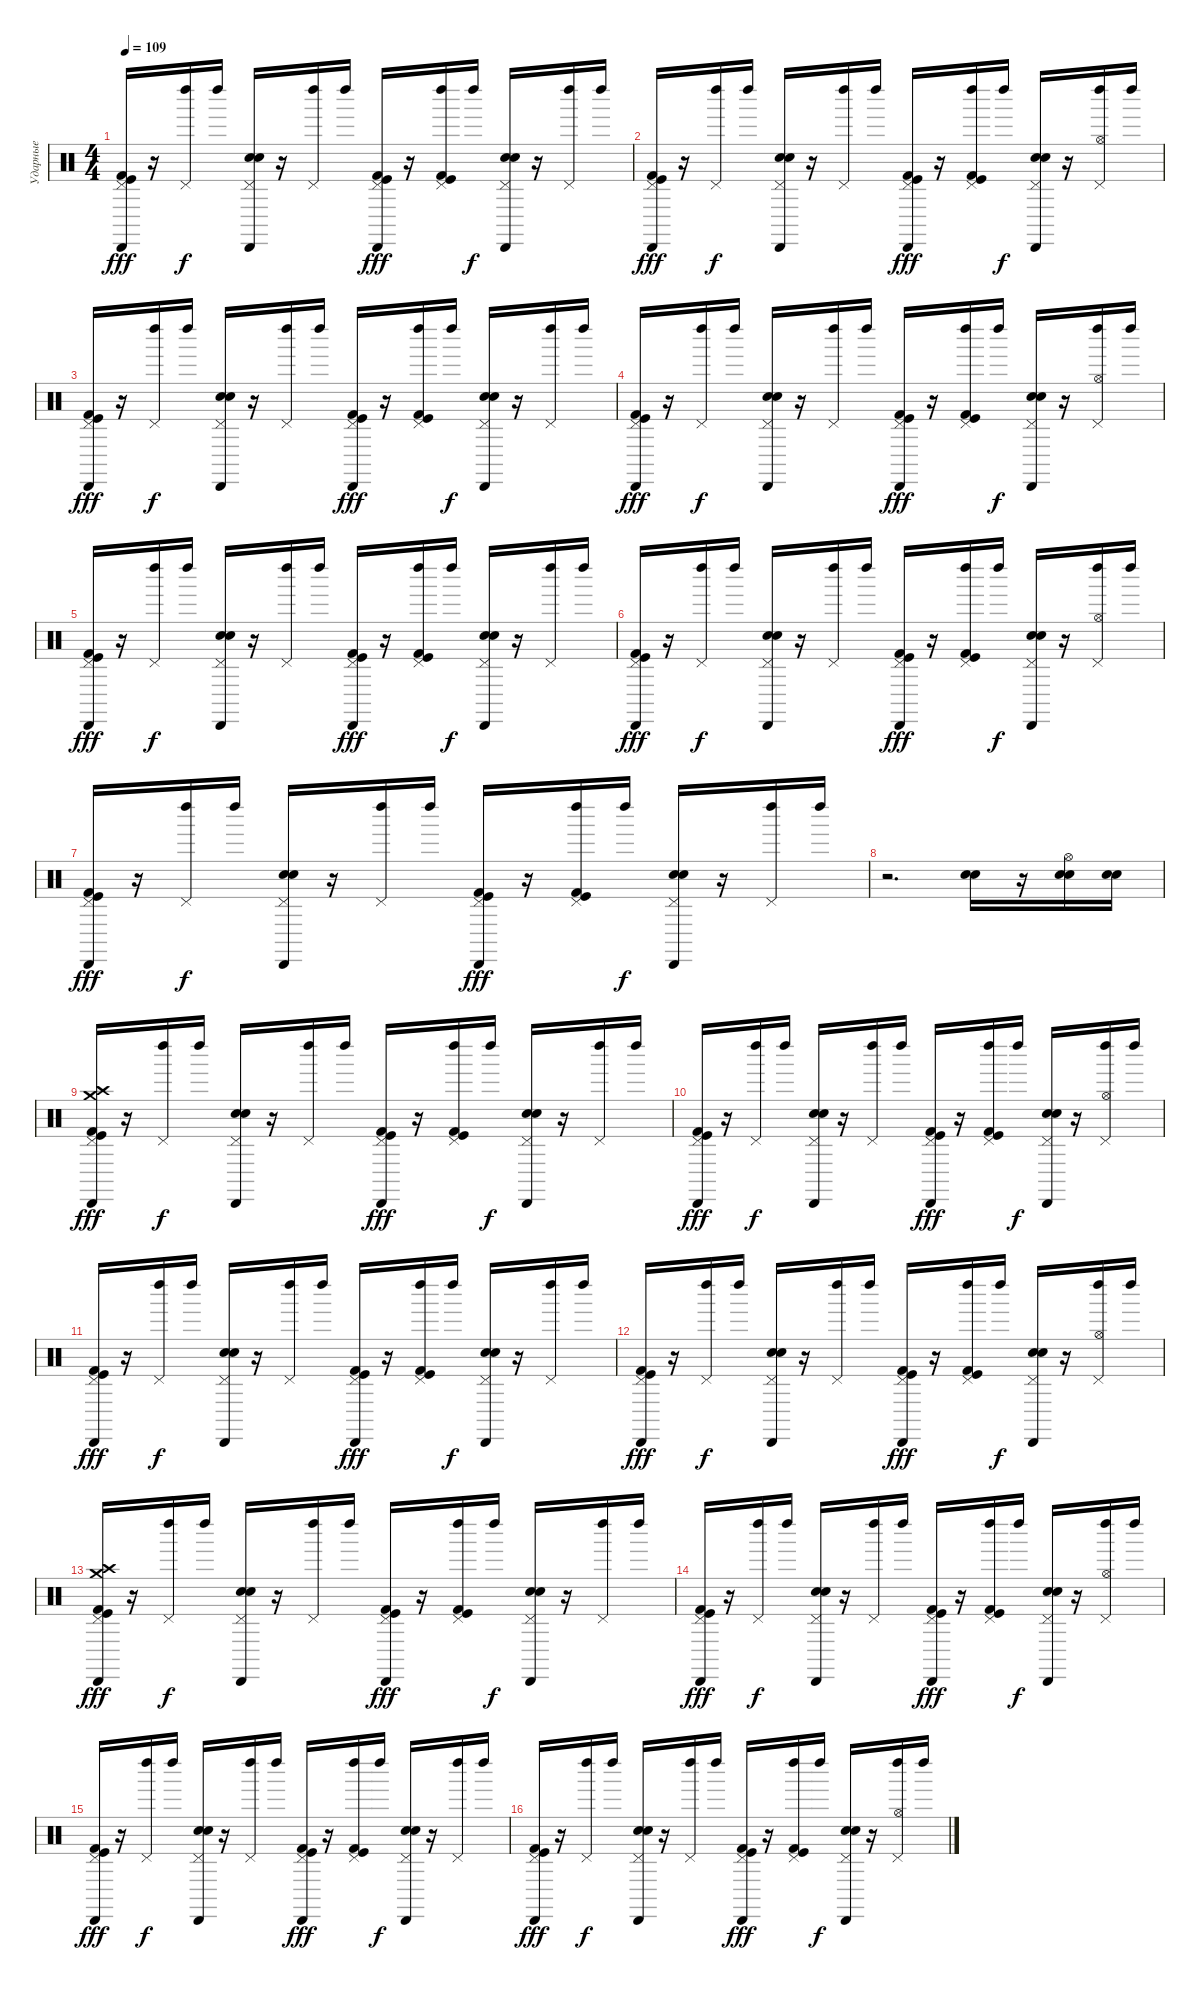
\track ("Ударные" "Ударные") {instrument percussion}
\staff {score}
\articulation defaults
\ts (4 4)
\tempo 109
\clef neutral
\ks c
("Cabasa (hit)" "Kick (hit)" "Kick (hit) 2" "Pedal Hi-Hat (hit)").16{dy fff} r.16 ("Left Maraca (hit)" "Pedal Hi-Hat (hit)").16{dy f} "Left Maraca (hit)".16 ("Cabasa (hit)" "Snare (hit) 2" "Electric Snare (hit)" "Pedal Hi-Hat (hit)").16 r.16 ("Left Maraca (hit)" "Pedal Hi-Hat (hit)").16 "Left Maraca (hit)".16 ("Cabasa (hit)" "Kick (hit)" "Kick (hit) 2" "Pedal Hi-Hat (hit)").16{dy fff} r.16 ("Left Maraca (hit)" "Kick (hit) 2" "Kick (hit)" "Pedal Hi-Hat (hit)").16 "Left Maraca (hit)".16{dy f} ("Cabasa (hit)" "Snare (hit) 2" "Electric Snare (hit)" "Pedal Hi-Hat (hit)").16 r.16 ("Left Maraca (hit)" "Pedal Hi-Hat (hit)").16 "Left Maraca (hit)".16 |
("Cabasa (hit)" "Kick (hit) 2" "Kick (hit)" "Pedal Hi-Hat (hit)").16{dy fff} r.16 ("Left Maraca (hit)" "Pedal Hi-Hat (hit)").16{dy f} "Left Maraca (hit)".16 ("Cabasa (hit)" "Electric Snare (hit)" "Snare (hit) 2" "Pedal Hi-Hat (hit)").16 r.16 ("Left Maraca (hit)" "Pedal Hi-Hat (hit)").16 "Left Maraca (hit)".16 ("Cabasa (hit)" "Kick (hit)" "Kick (hit) 2" "Pedal Hi-Hat (hit)").16{dy fff} r.16 ("Left Maraca (hit)" "Kick (hit) 2" "Kick (hit)" "Pedal Hi-Hat (hit)").16 "Left Maraca (hit)".16{dy f} ("Cabasa (hit)" "Snare (hit) 2" "Electric Snare (hit)" "Pedal Hi-Hat (hit)").16 r.16 ("Left Maraca (hit)" "Pedal Hi-Hat (hit)" "Hi-Hat (open)").16 "Left Maraca (hit)".16 |
("Cabasa (hit)" "Kick (hit)" "Kick (hit) 2" "Pedal Hi-Hat (hit)").16{dy fff} r.16 ("Left Maraca (hit)" "Pedal Hi-Hat (hit)").16{dy f} "Left Maraca (hit)".16 ("Cabasa (hit)" "Snare (hit) 2" "Electric Snare (hit)" "Pedal Hi-Hat (hit)").16 r.16 ("Left Maraca (hit)" "Pedal Hi-Hat (hit)").16 "Left Maraca (hit)".16 ("Cabasa (hit)" "Kick (hit)" "Kick (hit) 2" "Pedal Hi-Hat (hit)").16{dy fff} r.16 ("Left Maraca (hit)" "Kick (hit) 2" "Kick (hit)" "Pedal Hi-Hat (hit)").16 "Left Maraca (hit)".16{dy f} ("Cabasa (hit)" "Electric Snare (hit)" "Snare (hit) 2" "Pedal Hi-Hat (hit)").16 r.16 ("Left Maraca (hit)" "Pedal Hi-Hat (hit)").16 "Left Maraca (hit)".16 |
("Cabasa (hit)" "Kick (hit) 2" "Kick (hit)" "Pedal Hi-Hat (hit)").16{dy fff} r.16 ("Left Maraca (hit)" "Pedal Hi-Hat (hit)").16{dy f} "Left Maraca (hit)".16 ("Cabasa (hit)" "Snare (hit) 2" "Electric Snare (hit)" "Pedal Hi-Hat (hit)").16 r.16 ("Left Maraca (hit)" "Pedal Hi-Hat (hit)").16 "Left Maraca (hit)".16 ("Cabasa (hit)" "Kick (hit)" "Kick (hit) 2" "Pedal Hi-Hat (hit)").16{dy fff} r.16 ("Left Maraca (hit)" "Kick (hit) 2" "Kick (hit)" "Pedal Hi-Hat (hit)").16 "Left Maraca (hit)".16{dy f} ("Cabasa (hit)" "Snare (hit) 2" "Electric Snare (hit)" "Pedal Hi-Hat (hit)").16 r.16 ("Left Maraca (hit)" "Pedal Hi-Hat (hit)" "Hi-Hat (open)").16 "Left Maraca (hit)".16 |
("Cabasa (hit)" "Kick (hit) 2" "Kick (hit)" "Pedal Hi-Hat (hit)").16{dy fff} r.16 ("Left Maraca (hit)" "Pedal Hi-Hat (hit)").16{dy f} "Left Maraca (hit)".16 ("Cabasa (hit)" "Electric Snare (hit)" "Snare (hit) 2" "Pedal Hi-Hat (hit)").16 r.16 ("Left Maraca (hit)" "Pedal Hi-Hat (hit)").16 "Left Maraca (hit)".16 ("Cabasa (hit)" "Kick (hit) 2" "Kick (hit)" "Pedal Hi-Hat (hit)").16{dy fff} r.16 ("Left Maraca (hit)" "Kick (hit) 2" "Kick (hit)" "Pedal Hi-Hat (hit)").16 "Left Maraca (hit)".16{dy f} ("Cabasa (hit)" "Snare (hit) 2" "Electric Snare (hit)" "Pedal Hi-Hat (hit)").16 r.16 ("Left Maraca (hit)" "Pedal Hi-Hat (hit)").16 "Left Maraca (hit)".16 |
("Cabasa (hit)" "Kick (hit) 2" "Kick (hit)" "Pedal Hi-Hat (hit)").16{dy fff} r.16 ("Left Maraca (hit)" "Pedal Hi-Hat (hit)").16{dy f} "Left Maraca (hit)".16 ("Cabasa (hit)" "Snare (hit) 2" "Electric Snare (hit)" "Pedal Hi-Hat (hit)").16 r.16 ("Left Maraca (hit)" "Pedal Hi-Hat (hit)").16 "Left Maraca (hit)".16 ("Cabasa (hit)" "Kick (hit) 2" "Kick (hit)" "Pedal Hi-Hat (hit)").16{dy fff} r.16 ("Left Maraca (hit)" "Kick (hit)" "Kick (hit) 2" "Pedal Hi-Hat (hit)").16 "Left Maraca (hit)".16{dy f} ("Cabasa (hit)" "Electric Snare (hit)" "Snare (hit) 2" "Pedal Hi-Hat (hit)").16 r.16 ("Left Maraca (hit)" "Pedal Hi-Hat (hit)" "Hi-Hat (open)").16 "Left Maraca (hit)".16 |
("Cabasa (hit)" "Kick (hit)" "Kick (hit) 2" "Pedal Hi-Hat (hit)").16{dy fff} r.16 ("Left Maraca (hit)" "Pedal Hi-Hat (hit)").16{dy f} "Left Maraca (hit)".16 ("Cabasa (hit)" "Snare (hit) 2" "Electric Snare (hit)" "Pedal Hi-Hat (hit)").16 r.16 ("Left Maraca (hit)" "Pedal Hi-Hat (hit)").16 "Left Maraca (hit)".16 ("Cabasa (hit)" "Kick (hit) 2" "Kick (hit)" "Pedal Hi-Hat (hit)").16{dy fff} r.16 ("Left Maraca (hit)" "Kick (hit) 2" "Kick (hit)" "Pedal Hi-Hat (hit)").16 "Left Maraca (hit)".16{dy f} ("Cabasa (hit)" "Snare (hit) 2" "Electric Snare (hit)" "Pedal Hi-Hat (hit)").16 r.16 ("Left Maraca (hit)" "Pedal Hi-Hat (hit)").16 "Left Maraca (hit)".16 |
r.2{d} ("Snare (hit) 2" "Electric Snare (hit)").16 r.16 ("Snare (hit) 2" "Electric Snare (hit)" "Hi-Hat (open)").16 ("Snare (hit) 2" "Electric Snare (hit)").16 |
("Cabasa (hit)" "Kick (hit)" "Kick (hit) 2" "Pedal Hi-Hat (hit)" "Crash medium (hit)" "Crash high (hit)").16{dy fff} r.16 ("Left Maraca (hit)" "Pedal Hi-Hat (hit)").16{dy f} "Left Maraca (hit)".16 ("Cabasa (hit)" "Electric Snare (hit)" "Snare (hit) 2" "Pedal Hi-Hat (hit)").16 r.16 ("Left Maraca (hit)" "Pedal Hi-Hat (hit)").16 "Left Maraca (hit)".16 ("Cabasa (hit)" "Kick (hit)" "Kick (hit) 2" "Pedal Hi-Hat (hit)").16{dy fff} r.16 ("Left Maraca (hit)" "Kick (hit)" "Kick (hit) 2" "Pedal Hi-Hat (hit)").16 "Left Maraca (hit)".16{dy f} ("Cabasa (hit)" "Snare (hit) 2" "Electric Snare (hit)" "Pedal Hi-Hat (hit)").16 r.16 ("Left Maraca (hit)" "Pedal Hi-Hat (hit)").16 "Left Maraca (hit)".16 |
("Cabasa (hit)" "Kick (hit) 2" "Kick (hit)" "Pedal Hi-Hat (hit)").16{dy fff} r.16 ("Left Maraca (hit)" "Pedal Hi-Hat (hit)").16{dy f} "Left Maraca (hit)".16 ("Cabasa (hit)" "Electric Snare (hit)" "Snare (hit) 2" "Pedal Hi-Hat (hit)").16 r.16 ("Left Maraca (hit)" "Pedal Hi-Hat (hit)").16 "Left Maraca (hit)".16 ("Cabasa (hit)" "Kick (hit) 2" "Kick (hit)" "Pedal Hi-Hat (hit)").16{dy fff} r.16 ("Left Maraca (hit)" "Kick (hit) 2" "Kick (hit)" "Pedal Hi-Hat (hit)").16 "Left Maraca (hit)".16{dy f} ("Cabasa (hit)" "Snare (hit) 2" "Electric Snare (hit)" "Pedal Hi-Hat (hit)").16 r.16 ("Left Maraca (hit)" "Pedal Hi-Hat (hit)" "Hi-Hat (open)").16 "Left Maraca (hit)".16 |
("Cabasa (hit)" "Kick (hit)" "Kick (hit) 2" "Pedal Hi-Hat (hit)").16{dy fff} r.16 ("Left Maraca (hit)" "Pedal Hi-Hat (hit)").16{dy f} "Left Maraca (hit)".16 ("Cabasa (hit)" "Electric Snare (hit)" "Snare (hit) 2" "Pedal Hi-Hat (hit)").16 r.16 ("Left Maraca (hit)" "Pedal Hi-Hat (hit)").16 "Left Maraca (hit)".16 ("Cabasa (hit)" "Kick (hit)" "Kick (hit) 2" "Pedal Hi-Hat (hit)").16{dy fff} r.16 ("Left Maraca (hit)" "Kick (hit) 2" "Kick (hit)" "Pedal Hi-Hat (hit)").16 "Left Maraca (hit)".16{dy f} ("Cabasa (hit)" "Snare (hit) 2" "Electric Snare (hit)" "Pedal Hi-Hat (hit)").16 r.16 ("Left Maraca (hit)" "Pedal Hi-Hat (hit)").16 "Left Maraca (hit)".16 |
("Cabasa (hit)" "Kick (hit)" "Kick (hit) 2" "Pedal Hi-Hat (hit)").16{dy fff} r.16 ("Left Maraca (hit)" "Pedal Hi-Hat (hit)").16{dy f} "Left Maraca (hit)".16 ("Cabasa (hit)" "Snare (hit) 2" "Electric Snare (hit)" "Pedal Hi-Hat (hit)").16 r.16 ("Left Maraca (hit)" "Pedal Hi-Hat (hit)").16 "Left Maraca (hit)".16 ("Cabasa (hit)" "Kick (hit) 2" "Kick (hit)" "Pedal Hi-Hat (hit)").16{dy fff} r.16 ("Left Maraca (hit)" "Kick (hit) 2" "Kick (hit)" "Pedal Hi-Hat (hit)").16 "Left Maraca (hit)".16{dy f} ("Cabasa (hit)" "Snare (hit) 2" "Electric Snare (hit)" "Pedal Hi-Hat (hit)").16 r.16 ("Left Maraca (hit)" "Pedal Hi-Hat (hit)" "Hi-Hat (open)").16 "Left Maraca (hit)".16 |
("Cabasa (hit)" "Kick (hit) 2" "Kick (hit)" "Pedal Hi-Hat (hit)" "Crash medium (hit)" "Crash high (hit)").16{dy fff} r.16 ("Left Maraca (hit)" "Pedal Hi-Hat (hit)").16{dy f} "Left Maraca (hit)".16 ("Cabasa (hit)" "Electric Snare (hit)" "Snare (hit) 2" "Pedal Hi-Hat (hit)").16 r.16 ("Left Maraca (hit)" "Pedal Hi-Hat (hit)").16 "Left Maraca (hit)".16 ("Cabasa (hit)" "Kick (hit) 2" "Kick (hit)" "Pedal Hi-Hat (hit)").16{dy fff} r.16 ("Left Maraca (hit)" "Kick (hit) 2" "Kick (hit)" "Pedal Hi-Hat (hit)").16 "Left Maraca (hit)".16{dy f} ("Cabasa (hit)" "Snare (hit) 2" "Electric Snare (hit)" "Pedal Hi-Hat (hit)").16 r.16 ("Left Maraca (hit)" "Pedal Hi-Hat (hit)").16 "Left Maraca (hit)".16 |
("Cabasa (hit)" "Kick (hit) 2" "Kick (hit)" "Pedal Hi-Hat (hit)").16{dy fff} r.16 ("Left Maraca (hit)" "Pedal Hi-Hat (hit)").16{dy f} "Left Maraca (hit)".16 ("Cabasa (hit)" "Snare (hit) 2" "Electric Snare (hit)" "Pedal Hi-Hat (hit)").16 r.16 ("Left Maraca (hit)" "Pedal Hi-Hat (hit)").16 "Left Maraca (hit)".16 ("Cabasa (hit)" "Kick (hit)" "Kick (hit) 2" "Pedal Hi-Hat (hit)").16{dy fff} r.16 ("Left Maraca (hit)" "Kick (hit) 2" "Kick (hit)" "Pedal Hi-Hat (hit)").16 "Left Maraca (hit)".16{dy f} ("Cabasa (hit)" "Snare (hit) 2" "Electric Snare (hit)" "Pedal Hi-Hat (hit)").16 r.16 ("Left Maraca (hit)" "Pedal Hi-Hat (hit)" "Hi-Hat (open)").16 "Left Maraca (hit)".16 |
("Cabasa (hit)" "Kick (hit)" "Kick (hit) 2" "Pedal Hi-Hat (hit)").16{dy fff} r.16 ("Left Maraca (hit)" "Pedal Hi-Hat (hit)").16{dy f} "Left Maraca (hit)".16 ("Cabasa (hit)" "Snare (hit) 2" "Electric Snare (hit)" "Pedal Hi-Hat (hit)").16 r.16 ("Left Maraca (hit)" "Pedal Hi-Hat (hit)").16 "Left Maraca (hit)".16 ("Cabasa (hit)" "Kick (hit)" "Kick (hit) 2" "Pedal Hi-Hat (hit)").16{dy fff} r.16 ("Left Maraca (hit)" "Kick (hit) 2" "Kick (hit)" "Pedal Hi-Hat (hit)").16 "Left Maraca (hit)".16{dy f} ("Cabasa (hit)" "Snare (hit) 2" "Electric Snare (hit)" "Pedal Hi-Hat (hit)").16 r.16 ("Left Maraca (hit)" "Pedal Hi-Hat (hit)").16 "Left Maraca (hit)".16 |
("Cabasa (hit)" "Kick (hit) 2" "Kick (hit)" "Pedal Hi-Hat (hit)").16{dy fff} r.16 ("Left Maraca (hit)" "Pedal Hi-Hat (hit)").16{dy f} "Left Maraca (hit)".16 ("Cabasa (hit)" "Snare (hit) 2" "Electric Snare (hit)" "Pedal Hi-Hat (hit)").16 r.16 ("Left Maraca (hit)" "Pedal Hi-Hat (hit)").16 "Left Maraca (hit)".16 ("Cabasa (hit)" "Kick (hit)" "Kick (hit) 2" "Pedal Hi-Hat (hit)").16{dy fff} r.16 ("Left Maraca (hit)" "Kick (hit) 2" "Kick (hit)" "Pedal Hi-Hat (hit)").16 "Left Maraca (hit)".16{dy f} ("Cabasa (hit)" "Snare (hit) 2" "Electric Snare (hit)" "Pedal Hi-Hat (hit)").16 r.16 ("Left Maraca (hit)" "Pedal Hi-Hat (hit)" "Hi-Hat (open)").16 "Left Maraca (hit)".16
